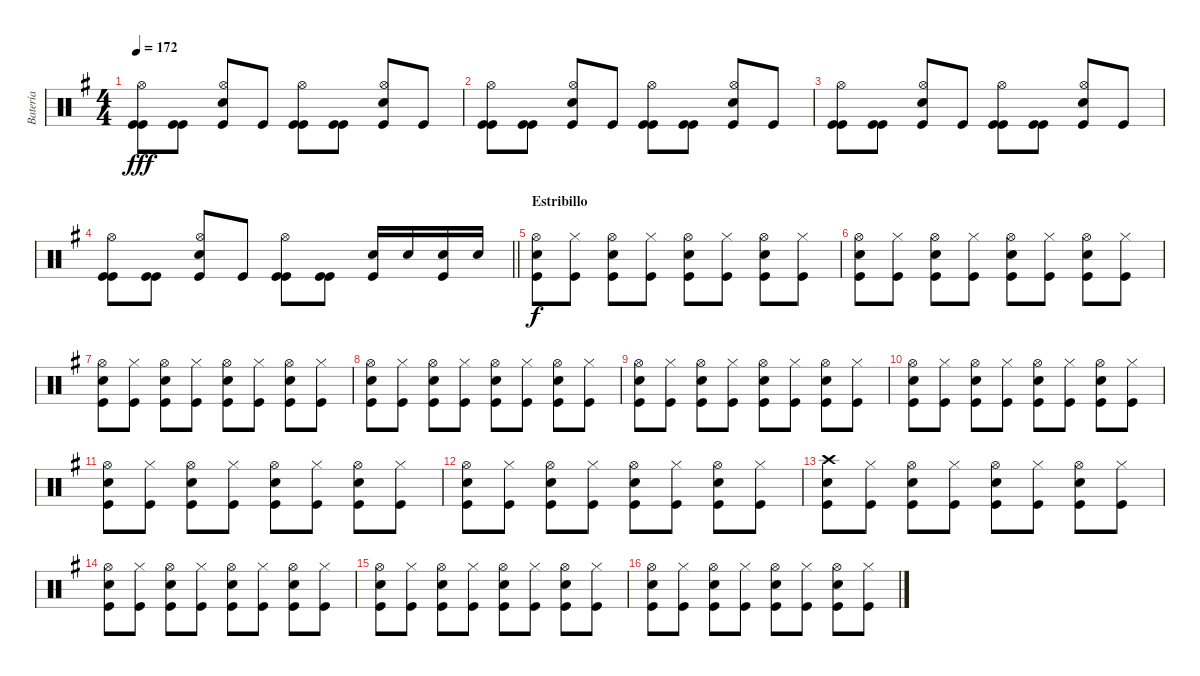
\track ("Batería" "Batería") {instrument percussion}
\staff {score}
\articulation defaults
\ts (4 4)
\tempo 172
\clef neutral
\ks eminor
("Kick (hit)" "Kick (hit)" "Hi-Hat (open)").8{dy fff} ("Kick (hit)" "Kick (hit)").8 ("Kick (hit)" "Electric Snare (hit)" "Hi-Hat (open)").8 "Kick (hit)".8 ("Kick (hit)" "Kick (hit)" "Hi-Hat (open)").8 ("Kick (hit)" "Kick (hit)").8 ("Kick (hit)" "Electric Snare (hit)" "Hi-Hat (open)").8 "Kick (hit)".8 |
("Kick (hit)" "Kick (hit)" "Hi-Hat (open)").8 ("Kick (hit)" "Kick (hit)").8 ("Kick (hit)" "Electric Snare (hit)" "Hi-Hat (open)").8 "Kick (hit)".8 ("Kick (hit)" "Kick (hit)" "Hi-Hat (open)").8 ("Kick (hit)" "Kick (hit)").8 ("Kick (hit)" "Electric Snare (hit)" "Hi-Hat (open)").8 "Kick (hit)".8 |
("Kick (hit)" "Kick (hit)" "Hi-Hat (open)").8 ("Kick (hit)" "Kick (hit)").8 ("Kick (hit)" "Electric Snare (hit)" "Hi-Hat (open)").8 "Kick (hit)".8 ("Kick (hit)" "Kick (hit)" "Hi-Hat (open)").8 ("Kick (hit)" "Kick (hit)").8 ("Kick (hit)" "Electric Snare (hit)" "Hi-Hat (open)").8 "Kick (hit)".8 |
\barLineRight lightlight
("Kick (hit)" "Kick (hit)" "Hi-Hat (open)").8 ("Kick (hit)" "Kick (hit)").8 ("Kick (hit)" "Electric Snare (hit)" "Hi-Hat (open)").8 "Kick (hit)".8 ("Kick (hit)" "Kick (hit)" "Hi-Hat (open)").8 ("Kick (hit)" "Kick (hit)").8 ("Electric Snare (hit)" "Kick (hit)").16 "Electric Snare (hit)".16 ("Electric Snare (hit)" "Kick (hit)").16 "Electric Snare (hit)".16 |
\section ("" "Estribillo")
("Kick (hit)" "Electric Snare (hit)" "Hi-Hat (open)").8{dy f} ("Kick (hit)" "Hi-Hat (closed)").8 ("Kick (hit)" "Electric Snare (hit)" "Hi-Hat (open)").8 ("Kick (hit)" "Hi-Hat (closed)").8 ("Kick (hit)" "Electric Snare (hit)" "Hi-Hat (open)").8 ("Kick (hit)" "Hi-Hat (closed)").8 ("Kick (hit)" "Electric Snare (hit)" "Hi-Hat (open)").8 ("Kick (hit)" "Hi-Hat (closed)").8 |
("Kick (hit)" "Electric Snare (hit)" "Hi-Hat (open)").8 ("Kick (hit)" "Hi-Hat (closed)").8 ("Kick (hit)" "Electric Snare (hit)" "Hi-Hat (open)").8 ("Kick (hit)" "Hi-Hat (closed)").8 ("Kick (hit)" "Electric Snare (hit)" "Hi-Hat (open)").8 ("Kick (hit)" "Hi-Hat (closed)").8 ("Kick (hit)" "Electric Snare (hit)" "Hi-Hat (open)").8 ("Kick (hit)" "Hi-Hat (closed)").8 |
("Kick (hit)" "Electric Snare (hit)" "Hi-Hat (open)").8 ("Kick (hit)" "Hi-Hat (closed)").8 ("Kick (hit)" "Electric Snare (hit)" "Hi-Hat (open)").8 ("Kick (hit)" "Hi-Hat (closed)").8 ("Kick (hit)" "Electric Snare (hit)" "Hi-Hat (open)").8 ("Kick (hit)" "Hi-Hat (closed)").8 ("Kick (hit)" "Electric Snare (hit)" "Hi-Hat (open)").8 ("Kick (hit)" "Hi-Hat (closed)").8 |
("Kick (hit)" "Electric Snare (hit)" "Hi-Hat (open)").8 ("Kick (hit)" "Hi-Hat (closed)").8 ("Kick (hit)" "Electric Snare (hit)" "Hi-Hat (open)").8 ("Kick (hit)" "Hi-Hat (closed)").8 ("Kick (hit)" "Electric Snare (hit)" "Hi-Hat (open)").8 ("Kick (hit)" "Hi-Hat (closed)").8 ("Kick (hit)" "Electric Snare (hit)" "Hi-Hat (open)").8 ("Kick (hit)" "Hi-Hat (closed)").8 |
("Kick (hit)" "Electric Snare (hit)" "Hi-Hat (open)").8 ("Kick (hit)" "Hi-Hat (closed)").8 ("Kick (hit)" "Electric Snare (hit)" "Hi-Hat (open)").8 ("Kick (hit)" "Hi-Hat (closed)").8 ("Kick (hit)" "Electric Snare (hit)" "Hi-Hat (open)").8 ("Kick (hit)" "Hi-Hat (closed)").8 ("Kick (hit)" "Electric Snare (hit)" "Hi-Hat (open)").8 ("Kick (hit)" "Hi-Hat (closed)").8 |
("Kick (hit)" "Electric Snare (hit)" "Hi-Hat (open)").8 ("Kick (hit)" "Hi-Hat (closed)").8 ("Kick (hit)" "Electric Snare (hit)" "Hi-Hat (open)").8 ("Kick (hit)" "Hi-Hat (closed)").8 ("Kick (hit)" "Electric Snare (hit)" "Hi-Hat (open)").8 ("Kick (hit)" "Hi-Hat (closed)").8 ("Kick (hit)" "Electric Snare (hit)" "Hi-Hat (open)").8 ("Kick (hit)" "Hi-Hat (closed)").8 |
("Kick (hit)" "Electric Snare (hit)" "Hi-Hat (open)").8 ("Kick (hit)" "Hi-Hat (closed)").8 ("Kick (hit)" "Electric Snare (hit)" "Hi-Hat (open)").8 ("Kick (hit)" "Hi-Hat (closed)").8 ("Kick (hit)" "Electric Snare (hit)" "Hi-Hat (open)").8 ("Kick (hit)" "Hi-Hat (closed)").8 ("Kick (hit)" "Electric Snare (hit)" "Hi-Hat (open)").8 ("Kick (hit)" "Hi-Hat (closed)").8 |
("Kick (hit)" "Electric Snare (hit)" "Hi-Hat (open)").8 ("Kick (hit)" "Hi-Hat (closed)").8 ("Kick (hit)" "Electric Snare (hit)" "Hi-Hat (open)").8 ("Kick (hit)" "Hi-Hat (closed)").8 ("Kick (hit)" "Electric Snare (hit)" "Hi-Hat (open)").8 ("Kick (hit)" "Hi-Hat (closed)").8 ("Kick (hit)" "Electric Snare (hit)" "Hi-Hat (open)").8 ("Kick (hit)" "Hi-Hat (closed)").8 |
("Kick (hit)" "Electric Snare (hit)" "Crash high (hit)").8 ("Kick (hit)" "Hi-Hat (closed)").8 ("Kick (hit)" "Electric Snare (hit)" "Hi-Hat (open)").8 ("Kick (hit)" "Hi-Hat (closed)").8 ("Kick (hit)" "Electric Snare (hit)" "Hi-Hat (open)").8 ("Kick (hit)" "Hi-Hat (closed)").8 ("Kick (hit)" "Electric Snare (hit)" "Hi-Hat (open)").8 ("Kick (hit)" "Hi-Hat (closed)").8 |
("Kick (hit)" "Electric Snare (hit)" "Hi-Hat (open)").8 ("Kick (hit)" "Hi-Hat (closed)").8 ("Kick (hit)" "Electric Snare (hit)" "Hi-Hat (open)").8 ("Kick (hit)" "Hi-Hat (closed)").8 ("Kick (hit)" "Electric Snare (hit)" "Hi-Hat (open)").8 ("Kick (hit)" "Hi-Hat (closed)").8 ("Kick (hit)" "Electric Snare (hit)" "Hi-Hat (open)").8 ("Kick (hit)" "Hi-Hat (closed)").8 |
("Kick (hit)" "Electric Snare (hit)" "Hi-Hat (open)").8 ("Kick (hit)" "Hi-Hat (closed)").8 ("Kick (hit)" "Electric Snare (hit)" "Hi-Hat (open)").8 ("Kick (hit)" "Hi-Hat (closed)").8 ("Kick (hit)" "Electric Snare (hit)" "Hi-Hat (open)").8 ("Kick (hit)" "Hi-Hat (closed)").8 ("Kick (hit)" "Electric Snare (hit)" "Hi-Hat (open)").8 ("Kick (hit)" "Hi-Hat (closed)").8 |
("Kick (hit)" "Electric Snare (hit)" "Hi-Hat (open)").8 ("Kick (hit)" "Hi-Hat (closed)").8 ("Kick (hit)" "Electric Snare (hit)" "Hi-Hat (open)").8 ("Kick (hit)" "Hi-Hat (closed)").8 ("Kick (hit)" "Electric Snare (hit)" "Hi-Hat (open)").8 ("Kick (hit)" "Hi-Hat (closed)").8 ("Kick (hit)" "Electric Snare (hit)" "Hi-Hat (open)").8 ("Kick (hit)" "Hi-Hat (closed)").8
